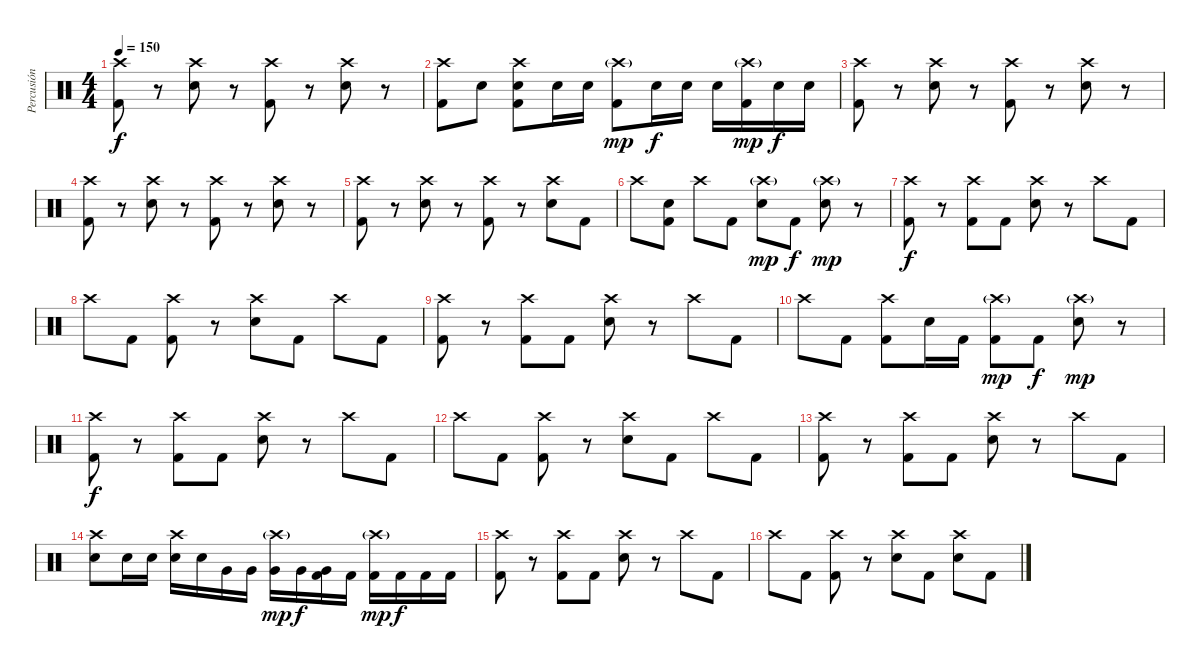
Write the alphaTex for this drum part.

\track ("Percusión" "Percusión") {instrument percussion}
\staff {score}
\articulation defaults
\ts (4 4)
\tempo 150
\clef neutral
\ks c
("Crash high (hit)" "Kick (hit) 2").8{dy f} r.8 ("Crash high (hit)" "Snare (hit) 2").8 r.8 ("Crash high (hit)" "Kick (hit) 2").8 r.8 ("Crash high (hit)" "Snare (hit) 2").8 r.8 |
("Crash high (hit)" "Kick (hit) 2").8 "Snare (hit) 2".8 ("Crash high (hit)" "Snare (hit) 2" "Kick (hit) 2").8 "Snare (hit) 2".16 "Snare (hit) 2".16 ("Crash high (hit)"{g} "Kick (hit) 2").8{dy mp} "Snare (hit) 2".16{dy f} "Snare (hit) 2".16 "Snare (hit) 2".16 ("Crash high (hit)"{g} "Kick (hit) 2").16{dy mp} "Snare (hit) 2".16{dy f} "Snare (hit) 2".16 |
("Crash high (hit)" "Kick (hit) 2").8 r.8 ("Crash high (hit)" "Snare (hit) 2").8 r.8 ("Crash high (hit)" "Kick (hit) 2").8 r.8 ("Crash high (hit)" "Snare (hit) 2").8 r.8 |
("Crash high (hit)" "Kick (hit) 2").8 r.8 ("Crash high (hit)" "Snare (hit) 2").8 r.8 ("Crash high (hit)" "Kick (hit) 2").8 r.8 ("Crash high (hit)" "Snare (hit) 2").8 r.8 |
("Crash high (hit)" "Kick (hit) 2").8 r.8 ("Crash high (hit)" "Snare (hit) 2").8 r.8 ("Crash high (hit)" "Kick (hit) 2").8 r.8 ("Crash high (hit)" "Snare (hit) 2").8 "Kick (hit) 2".8 |
"Crash high (hit)".8 ("Snare (hit) 2" "Kick (hit) 2").8 "Crash high (hit)".8 "Kick (hit) 2".8 ("Crash high (hit)"{g} "Snare (hit) 2").8{dy mp} "Kick (hit) 2".8{dy f} ("Crash high (hit)"{g} "Snare (hit) 2").8{dy mp} r.8 |
("Crash high (hit)" "Kick (hit) 2").8{dy f} r.8 ("Crash high (hit)" "Kick (hit) 2").8 "Kick (hit) 2".8 ("Crash high (hit)" "Snare (hit) 2").8 r.8 "Crash high (hit)".8 "Kick (hit) 2".8 |
"Crash high (hit)".8 "Kick (hit) 2".8 ("Crash high (hit)" "Kick (hit) 2").8 r.8 ("Crash high (hit)" "Snare (hit) 2").8 "Kick (hit) 2".8 "Crash high (hit)".8 "Kick (hit) 2".8 |
("Crash high (hit)" "Kick (hit) 2").8 r.8 ("Crash high (hit)" "Kick (hit) 2").8 "Kick (hit) 2".8 ("Crash high (hit)" "Snare (hit) 2").8 r.8 "Crash high (hit)".8 "Kick (hit) 2".8 |
"Crash high (hit)".8 "Kick (hit) 2".8 ("Crash high (hit)" "Kick (hit) 2").8 "Snare (hit) 2".16 "Kick (hit) 2".16 ("Crash high (hit)"{g} "Kick (hit) 2").8{dy mp} "Kick (hit) 2".8{dy f} ("Crash high (hit)"{g} "Snare (hit) 2").8{dy mp} r.8 |
("Crash high (hit)" "Kick (hit) 2").8{dy f} r.8 ("Crash high (hit)" "Kick (hit) 2").8 "Kick (hit) 2".8 ("Crash high (hit)" "Snare (hit) 2").8 r.8 "Crash high (hit)".8 "Kick (hit) 2".8 |
"Crash high (hit)".8 "Kick (hit) 2".8 ("Crash high (hit)" "Kick (hit) 2").8 r.8 ("Crash high (hit)" "Snare (hit) 2").8 "Kick (hit) 2".8 "Crash high (hit)".8 "Kick (hit) 2".8 |
("Crash high (hit)" "Kick (hit) 2").8 r.8 ("Crash high (hit)" "Kick (hit) 2").8 "Kick (hit) 2".8 ("Crash high (hit)" "Snare (hit) 2").8 r.8 "Crash high (hit)".8 "Kick (hit) 2".8 |
("Crash high (hit)" "Snare (hit) 2").8 "Snare (hit) 2".16 "Snare (hit) 2".16 ("Crash high (hit)" "Snare (hit) 2").16 "Snare (hit) 2".16 "Very Low Tom (hit)".16 "Very Low Tom (hit)".16 ("Crash high (hit)"{g} "Very Low Tom (hit)").16{dy mp} "Very Low Tom (hit)".16{dy f} ("Very Low Tom (hit)" "Kick (hit) 2").16 "Kick (hit) 2".16 ("Crash high (hit)"{g} "Kick (hit) 2").16{dy mp} "Kick (hit) 2".16{dy f} "Kick (hit) 2".16 "Kick (hit) 2".16 |
("Crash high (hit)" "Kick (hit) 2").8 r.8 ("Crash high (hit)" "Kick (hit) 2").8 "Kick (hit) 2".8 ("Crash high (hit)" "Snare (hit) 2").8 r.8 "Crash high (hit)".8 "Kick (hit) 2".8 |
"Crash high (hit)".8 "Kick (hit) 2".8 ("Crash high (hit)" "Kick (hit) 2").8 r.8 ("Crash high (hit)" "Snare (hit) 2").8 "Kick (hit) 2".8 ("Crash high (hit)" "Snare (hit) 2").8 "Kick (hit) 2".8
